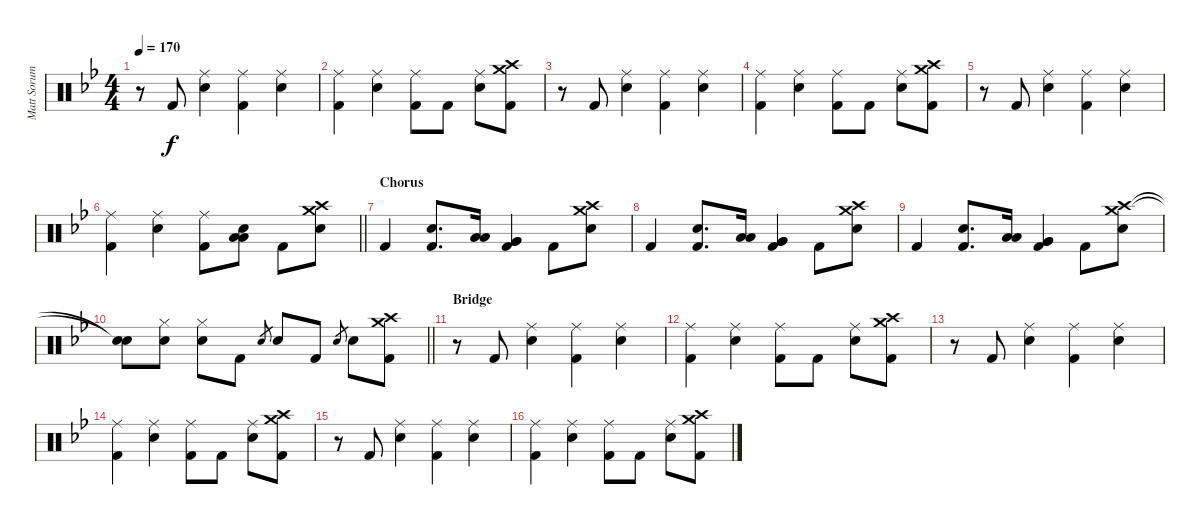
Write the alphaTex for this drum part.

\track ("Matt Sorum - Drums" "Matt Sorum") {instrument percussion}
\staff {score}
\articulation defaults
\ts (4 4)
\tempo 170
\clef neutral
\ks bb
r.8{dy f} "Kick (hit) 2".8 ("Ride (middle)" "Snare (hit) 2").4 ("Ride (middle)" "Kick (hit) 2").4 ("Ride (middle)" "Snare (hit) 2").4 |
("Ride (middle)" "Kick (hit) 2").4 ("Ride (middle)" "Snare (hit) 2").4 ("Ride (middle)" "Kick (hit) 2").8 "Kick (hit) 2".8 ("Ride (middle)" "Snare (hit) 2").8 ("Crash medium (hit)" "Crash high (hit)" "Kick (hit) 2").8 |
r.8 "Kick (hit) 2".8 ("Ride (middle)" "Snare (hit) 2").4 ("Ride (middle)" "Kick (hit) 2").4 ("Ride (middle)" "Snare (hit) 2").4 |
("Ride (middle)" "Kick (hit) 2").4 ("Ride (middle)" "Snare (hit) 2").4 ("Ride (middle)" "Kick (hit) 2").8 "Kick (hit) 2".8 ("Ride (middle)" "Snare (hit) 2").8 ("Crash medium (hit)" "Crash high (hit)" "Kick (hit) 2").8 |
r.8 "Kick (hit) 2".8 ("Ride (middle)" "Snare (hit) 2").4 ("Ride (middle)" "Kick (hit) 2").4 ("Ride (middle)" "Snare (hit) 2").4 |
\barLineRight lightlight
("Ride (middle)" "Kick (hit) 2").4 ("Ride (middle)" "Snare (hit) 2").4 ("Ride (middle)" "Kick (hit) 2").8 ("Low Tom (hit)" "Low Tom (hit)" "Snare (hit) 2").8 "Kick (hit) 2".8 ("Crash medium (hit)" "Crash high (hit)" "Snare (hit) 2").8 |
\section ("" "Chorus")
"Kick (hit) 2".4 ("Snare (hit) 2" "Kick (hit) 2").8{d} ("Low Tom (hit)" "Low Tom (hit)").16 ("Very Low Tom (hit)" "Very Low Tom (hit)" "Kick (hit) 2").4 "Kick (hit) 2".8 ("Crash medium (hit)" "Crash high (hit)" "Snare (hit) 2").8 |
"Kick (hit) 2".4 ("Snare (hit) 2" "Kick (hit) 2").8{d} ("Low Tom (hit)" "Low Tom (hit)").16 ("Very Low Tom (hit)" "Very Low Tom (hit)" "Kick (hit) 2").4 "Kick (hit) 2".8 ("Crash medium (hit)" "Crash high (hit)" "Snare (hit) 2").8 |
"Kick (hit) 2".4 ("Snare (hit) 2" "Kick (hit) 2").8{d} ("Low Tom (hit)" "Low Tom (hit)").16 ("Very Low Tom (hit)" "Very Low Tom (hit)" "Kick (hit) 2").4 "Kick (hit) 2".8 ("Crash medium (hit)" "Crash high (hit)" "Snare (hit) 2").8 |
\barLineRight lightlight
("Snare (hit)"{t} "Snare (hit)"{t}).8 ("Hi-Hat (closed)" "Snare (hit) 2").8 ("Hi-Hat (closed)" "Snare (hit) 2").8 "Kick (hit) 2".8 "Snare (hit) 2".8{gr} "Snare (hit) 2".8 "Kick (hit) 2".8 "Snare (hit) 2".8{gr} "Snare (hit) 2".8 ("Crash medium (hit)" "Crash high (hit)" "Kick (hit) 2").8 |
\section ("" "Bridge")
r.8 "Kick (hit) 2".8 ("Ride (middle)" "Snare (hit) 2").4 ("Ride (middle)" "Kick (hit) 2").4 ("Ride (middle)" "Snare (hit) 2").4 |
("Ride (middle)" "Kick (hit) 2").4 ("Ride (middle)" "Snare (hit) 2").4 ("Ride (middle)" "Kick (hit) 2").8 "Kick (hit) 2".8 ("Ride (middle)" "Snare (hit) 2").8 ("Crash medium (hit)" "Crash high (hit)" "Kick (hit) 2").8 |
r.8 "Kick (hit) 2".8 ("Ride (middle)" "Snare (hit) 2").4 ("Ride (middle)" "Kick (hit) 2").4 ("Ride (middle)" "Snare (hit) 2").4 |
("Ride (middle)" "Kick (hit) 2").4 ("Ride (middle)" "Snare (hit) 2").4 ("Ride (middle)" "Kick (hit) 2").8 "Kick (hit) 2".8 ("Ride (middle)" "Snare (hit) 2").8 ("Crash medium (hit)" "Crash high (hit)" "Kick (hit) 2").8 |
r.8 "Kick (hit) 2".8 ("Ride (middle)" "Snare (hit) 2").4 ("Ride (middle)" "Kick (hit) 2").4 ("Ride (middle)" "Snare (hit) 2").4 |
("Ride (middle)" "Kick (hit) 2").4 ("Ride (middle)" "Snare (hit) 2").4 ("Ride (middle)" "Kick (hit) 2").8 "Kick (hit) 2".8 ("Ride (middle)" "Snare (hit) 2").8 ("Crash medium (hit)" "Crash high (hit)" "Kick (hit) 2").8
